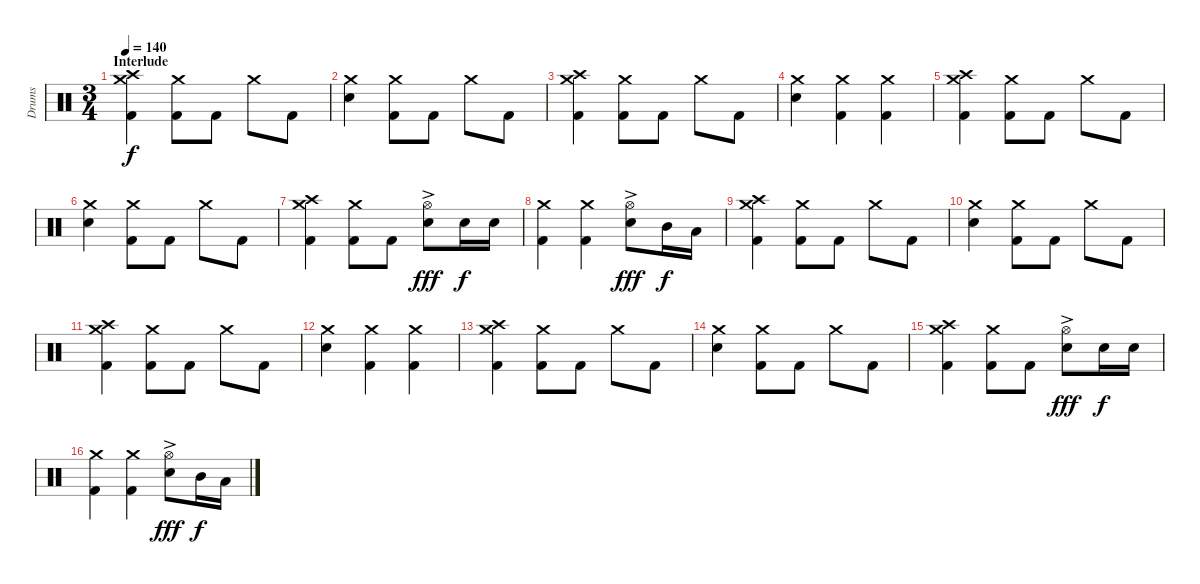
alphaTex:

\track ("Drums" "Drums") {instrument percussion}
\staff {score}
\articulation defaults
\ts (3 4)
\section ("" "Interlude")
\tempo 140
\clef neutral
\ks c
("Crash high (hit)" "Crash medium (hit)" "Kick (hit) 2").4{dy f} ("Crash medium (hit)" "Kick (hit) 2").8 "Kick (hit) 2".8 "Crash medium (hit)".8 "Kick (hit) 2".8 |
("Crash medium (hit)" "Snare (hit) 2").4 ("Crash medium (hit)" "Kick (hit) 2").8 "Kick (hit) 2".8 "Crash medium (hit)".8 "Kick (hit) 2".8 |
("Crash high (hit)" "Crash medium (hit)" "Kick (hit) 2").4 ("Crash medium (hit)" "Kick (hit) 2").8 "Kick (hit) 2".8 "Crash medium (hit)".8 "Kick (hit) 2".8 |
("Crash medium (hit)" "Snare (hit) 2").4 ("Crash medium (hit)" "Kick (hit) 2").4 ("Crash medium (hit)" "Kick (hit) 2").4 |
("Crash high (hit)" "Crash medium (hit)" "Kick (hit) 2").4 ("Crash medium (hit)" "Kick (hit) 2").8 "Kick (hit) 2".8 "Crash medium (hit)".8 "Kick (hit) 2".8 |
("Crash medium (hit)" "Snare (hit) 2").4 ("Crash medium (hit)" "Kick (hit) 2").8 "Kick (hit) 2".8 "Crash medium (hit)".8 "Kick (hit) 2".8 |
("Crash high (hit)" "Crash medium (hit)" "Kick (hit) 2").4 ("Crash medium (hit)" "Kick (hit) 2").8 "Kick (hit) 2".8 ("Hi-Hat (open)"{ac} "Snare (hit) 2"{ac}).8{dy fff} "Snare (hit) 2".16{dy f} "Snare (hit) 2".16 |
("Crash medium (hit)" "Kick (hit) 2").4 ("Crash medium (hit)" "Kick (hit) 2").4 ("Hi-Hat (open)"{ac} "Snare (hit) 2"{ac}).8{dy fff} "Mid Tom (hit)".16{dy f} "Low Tom (hit)".16 |
("Crash high (hit)" "Crash medium (hit)" "Kick (hit) 2").4 ("Crash medium (hit)" "Kick (hit) 2").8 "Kick (hit) 2".8 "Crash medium (hit)".8 "Kick (hit) 2".8 |
("Crash medium (hit)" "Snare (hit) 2").4 ("Crash medium (hit)" "Kick (hit) 2").8 "Kick (hit) 2".8 "Crash medium (hit)".8 "Kick (hit) 2".8 |
("Crash high (hit)" "Crash medium (hit)" "Kick (hit) 2").4 ("Crash medium (hit)" "Kick (hit) 2").8 "Kick (hit) 2".8 "Crash medium (hit)".8 "Kick (hit) 2".8 |
("Crash medium (hit)" "Snare (hit) 2").4 ("Crash medium (hit)" "Kick (hit) 2").4 ("Crash medium (hit)" "Kick (hit) 2").4 |
("Crash high (hit)" "Crash medium (hit)" "Kick (hit) 2").4 ("Crash medium (hit)" "Kick (hit) 2").8 "Kick (hit) 2".8 "Crash medium (hit)".8 "Kick (hit) 2".8 |
("Crash medium (hit)" "Snare (hit) 2").4 ("Crash medium (hit)" "Kick (hit) 2").8 "Kick (hit) 2".8 "Crash medium (hit)".8 "Kick (hit) 2".8 |
("Crash high (hit)" "Crash medium (hit)" "Kick (hit) 2").4 ("Crash medium (hit)" "Kick (hit) 2").8 "Kick (hit) 2".8 ("Hi-Hat (open)"{ac} "Snare (hit) 2"{ac}).8{dy fff} "Snare (hit) 2".16{dy f} "Snare (hit) 2".16 |
("Crash medium (hit)" "Kick (hit) 2").4 ("Crash medium (hit)" "Kick (hit) 2").4 ("Hi-Hat (open)"{ac} "Snare (hit) 2"{ac}).8{dy fff} "Mid Tom (hit)".16{dy f} "Low Tom (hit)".16
